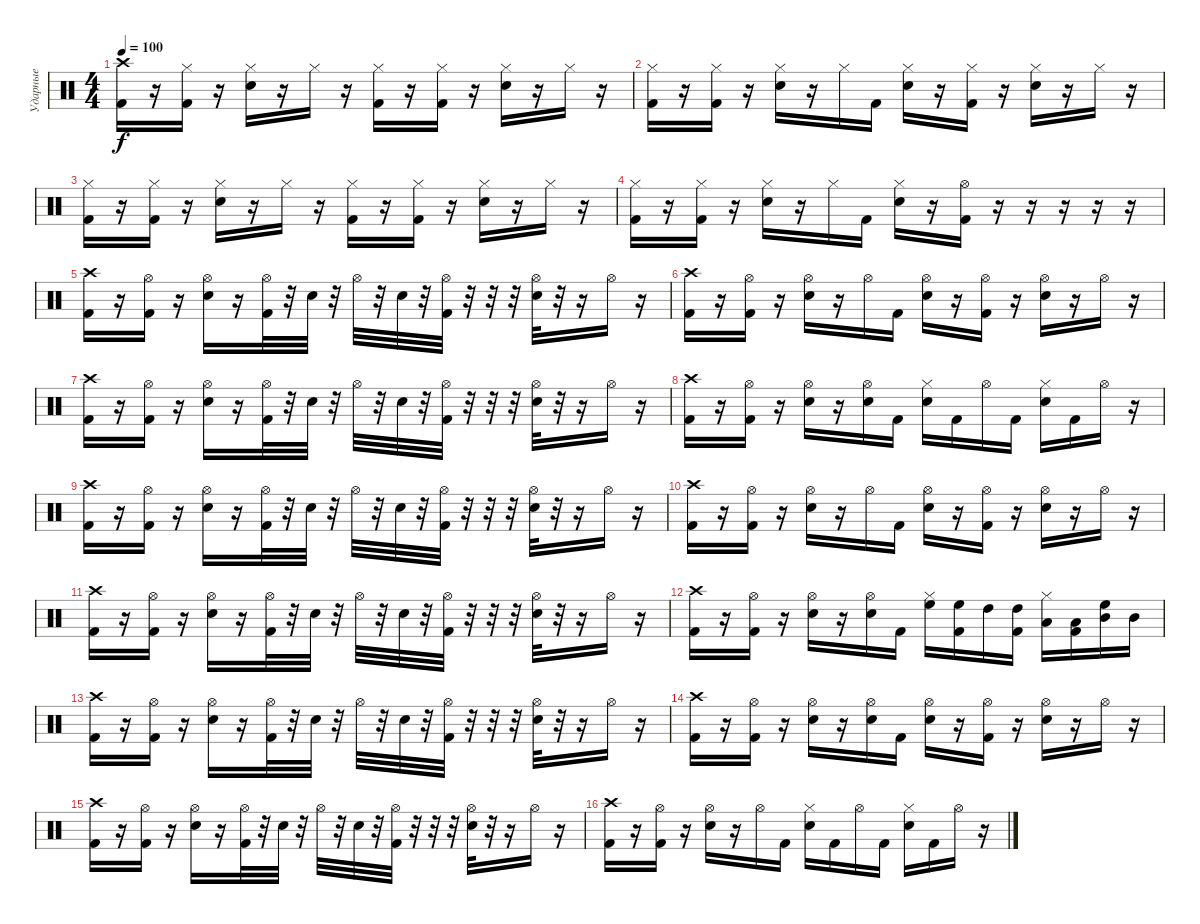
\track ("Ударные" "Ударные") {instrument percussion}
\staff {score}
\articulation defaults
\ts (4 4)
\tempo 100
\clef neutral
\ks c
("Crash high (hit)" "Kick (hit) 2").16{dy f} r.16 ("Hi-Hat (closed)" "Kick (hit) 2").16 r.16 ("Hi-Hat (closed)" "Electric Snare (hit)").16 r.16 "Hi-Hat (closed)".16 r.16 ("Hi-Hat (closed)" "Kick (hit) 2").16 r.16 ("Hi-Hat (closed)" "Kick (hit) 2").16 r.16 ("Hi-Hat (closed)" "Electric Snare (hit)").16 r.16 "Hi-Hat (closed)".16 r.16 |
("Hi-Hat (closed)" "Kick (hit) 2").16 r.16 ("Hi-Hat (closed)" "Kick (hit) 2").16 r.16 ("Hi-Hat (closed)" "Electric Snare (hit)").16 r.16 "Hi-Hat (closed)".16 "Kick (hit) 2".16 ("Hi-Hat (closed)" "Electric Snare (hit)").16 r.16 ("Hi-Hat (closed)" "Kick (hit) 2").16 r.16 ("Hi-Hat (closed)" "Electric Snare (hit)").16 r.16 "Hi-Hat (closed)".16 r.16 |
("Hi-Hat (closed)" "Kick (hit) 2").16 r.16 ("Hi-Hat (closed)" "Kick (hit) 2").16 r.16 ("Hi-Hat (closed)" "Electric Snare (hit)").16 r.16 "Hi-Hat (closed)".16 r.16 ("Hi-Hat (closed)" "Kick (hit) 2").16 r.16 ("Hi-Hat (closed)" "Kick (hit) 2").16 r.16 ("Hi-Hat (closed)" "Electric Snare (hit)").16 r.16 "Hi-Hat (closed)".16 r.16 |
("Hi-Hat (closed)" "Kick (hit) 2").16 r.16 ("Hi-Hat (closed)" "Kick (hit) 2").16 r.16 ("Hi-Hat (closed)" "Electric Snare (hit)").16 r.16 "Hi-Hat (closed)".16 "Kick (hit) 2".16 ("Hi-Hat (closed)" "Electric Snare (hit)").16 r.16 ("Hi-Hat (open)" "Kick (hit) 2").16 r.16 r.16 r.16 r.16 r.16 |
("Crash high (hit)" "Kick (hit) 2").16 r.16 ("Hi-Hat (open)" "Kick (hit) 2").16 r.16 ("Hi-Hat (open)" "Electric Snare (hit)").16 r.16 ("Hi-Hat (open)" "Kick (hit) 2").32 r.32 "Electric Snare (hit)".32 r.32 "Hi-Hat (open)".32 r.32 "Electric Snare (hit)".32 r.32 ("Hi-Hat (open)" "Kick (hit) 2").32 r.32 r.32 r.32 ("Hi-Hat (open)" "Electric Snare (hit)").32 r.32 r.16 "Hi-Hat (open)".16 r.16 |
("Crash high (hit)" "Kick (hit) 2").16 r.16 ("Hi-Hat (open)" "Kick (hit) 2").16 r.16 ("Hi-Hat (open)" "Electric Snare (hit)").16 r.16 "Hi-Hat (open)".16 "Kick (hit) 2".16 ("Hi-Hat (open)" "Electric Snare (hit)").16 r.16 ("Hi-Hat (open)" "Kick (hit) 2").16 r.16 ("Hi-Hat (open)" "Electric Snare (hit)").16 r.16 "Hi-Hat (open)".16 r.16 |
("Crash high (hit)" "Kick (hit) 2").16 r.16 ("Hi-Hat (open)" "Kick (hit) 2").16 r.16 ("Hi-Hat (open)" "Electric Snare (hit)").16 r.16 ("Hi-Hat (open)" "Kick (hit) 2").32 r.32 "Electric Snare (hit)".32 r.32 "Hi-Hat (open)".32 r.32 "Electric Snare (hit)".32 r.32 ("Hi-Hat (open)" "Kick (hit) 2").32 r.32 r.32 r.32 ("Hi-Hat (open)" "Electric Snare (hit)").32 r.32 r.16 "Hi-Hat (open)".16 r.16 |
("Crash high (hit)" "Kick (hit) 2").16 r.16 ("Hi-Hat (open)" "Kick (hit) 2").16 r.16 ("Hi-Hat (open)" "Electric Snare (hit)").16 r.16 ("Hi-Hat (open)" "Electric Snare (hit)").16 "Kick (hit) 2".16 ("Hi-Hat (closed)" "Electric Snare (hit)").16 "Kick (hit) 2".16 "Hi-Hat (open)".16 "Kick (hit) 2".16 ("Hi-Hat (closed)" "Electric Snare (hit)").16 "Kick (hit) 2".16 "Hi-Hat (open)".16 r.16 |
("Crash high (hit)" "Kick (hit) 2").16 r.16 ("Hi-Hat (open)" "Kick (hit) 2").16 r.16 ("Hi-Hat (open)" "Electric Snare (hit)").16 r.16 ("Hi-Hat (open)" "Kick (hit) 2").32 r.32 "Electric Snare (hit)".32 r.32 "Hi-Hat (open)".32 r.32 "Electric Snare (hit)".32 r.32 ("Hi-Hat (open)" "Kick (hit) 2").32 r.32 r.32 r.32 ("Hi-Hat (open)" "Electric Snare (hit)").32 r.32 r.16 "Hi-Hat (open)".16 r.16 |
("Crash high (hit)" "Kick (hit) 2").16 r.16 ("Hi-Hat (open)" "Kick (hit) 2").16 r.16 ("Hi-Hat (open)" "Electric Snare (hit)").16 r.16 "Hi-Hat (open)".16 "Kick (hit) 2".16 ("Hi-Hat (open)" "Electric Snare (hit)").16 r.16 ("Hi-Hat (open)" "Kick (hit) 2").16 r.16 ("Hi-Hat (open)" "Electric Snare (hit)").16 r.16 "Hi-Hat (open)".16 r.16 |
("Crash high (hit)" "Kick (hit) 2").16 r.16 ("Hi-Hat (open)" "Kick (hit) 2").16 r.16 ("Hi-Hat (open)" "Electric Snare (hit)").16 r.16 ("Hi-Hat (open)" "Kick (hit) 2").32 r.32 "Electric Snare (hit)".32 r.32 "Hi-Hat (open)".32 r.32 "Electric Snare (hit)".32 r.32 ("Hi-Hat (open)" "Kick (hit) 2").32 r.32 r.32 r.32 ("Hi-Hat (open)" "Electric Snare (hit)").32 r.32 r.16 "Hi-Hat (open)".16 r.16 |
("Crash high (hit)" "Kick (hit) 2").16 r.16 ("Hi-Hat (open)" "Kick (hit) 2").16 r.16 ("Hi-Hat (open)" "Electric Snare (hit)").16 r.16 ("Hi-Hat (open)" "Electric Snare (hit)").16 "Kick (hit) 2".16 ("Hi-Hat (closed)" "High Floor Tom (hit)").16 ("High Floor Tom (hit)" "Kick (hit) 2").16 "High Tom (hit)".16 ("High Tom (hit)" "Kick (hit) 2").16 ("Hi-Hat (closed)" "Low Tom (hit)").16 ("Low Tom (hit)" "Kick (hit) 2").16 ("High Floor Tom (hit)" "Mid Tom (hit)").16 "Mid Tom (hit)".16 |
("Crash high (hit)" "Kick (hit) 2").16 r.16 ("Hi-Hat (open)" "Kick (hit) 2").16 r.16 ("Hi-Hat (open)" "Electric Snare (hit)").16 r.16 ("Hi-Hat (open)" "Kick (hit) 2").32 r.32 "Electric Snare (hit)".32 r.32 "Hi-Hat (open)".32 r.32 "Electric Snare (hit)".32 r.32 ("Hi-Hat (open)" "Kick (hit) 2").32 r.32 r.32 r.32 ("Hi-Hat (open)" "Electric Snare (hit)").32 r.32 r.16 "Hi-Hat (open)".16 r.16 |
("Crash high (hit)" "Kick (hit) 2").16 r.16 ("Hi-Hat (open)" "Kick (hit) 2").16 r.16 ("Hi-Hat (open)" "Electric Snare (hit)").16 r.16 ("Hi-Hat (open)" "Electric Snare (hit)").16 "Kick (hit) 2".16 ("Hi-Hat (open)" "Electric Snare (hit)").16 r.16 ("Hi-Hat (open)" "Kick (hit) 2").16 r.16 ("Hi-Hat (open)" "Electric Snare (hit)").16 r.16 "Hi-Hat (open)".16 r.16 |
("Crash high (hit)" "Kick (hit) 2").16 r.16 ("Hi-Hat (open)" "Kick (hit) 2").16 r.16 ("Hi-Hat (open)" "Electric Snare (hit)").16 r.16 ("Hi-Hat (open)" "Kick (hit) 2").32 r.32 "Electric Snare (hit)".32 r.32 "Hi-Hat (open)".32 r.32 "Electric Snare (hit)".32 r.32 ("Hi-Hat (open)" "Kick (hit) 2").32 r.32 r.32 r.32 ("Hi-Hat (open)" "Electric Snare (hit)").32 r.32 r.16 "Hi-Hat (open)".16 r.16 |
("Crash high (hit)" "Kick (hit) 2").16 r.16 ("Hi-Hat (open)" "Kick (hit) 2").16 r.16 ("Hi-Hat (open)" "Electric Snare (hit)").16 r.16 "Hi-Hat (open)".16 "Kick (hit) 2".16 ("Hi-Hat (closed)" "Electric Snare (hit)").16 "Kick (hit) 2".16 "Hi-Hat (open)".16 "Kick (hit) 2".16 ("Hi-Hat (closed)" "Electric Snare (hit)").16 "Kick (hit) 2".16 "Hi-Hat (open)".16 r.16
